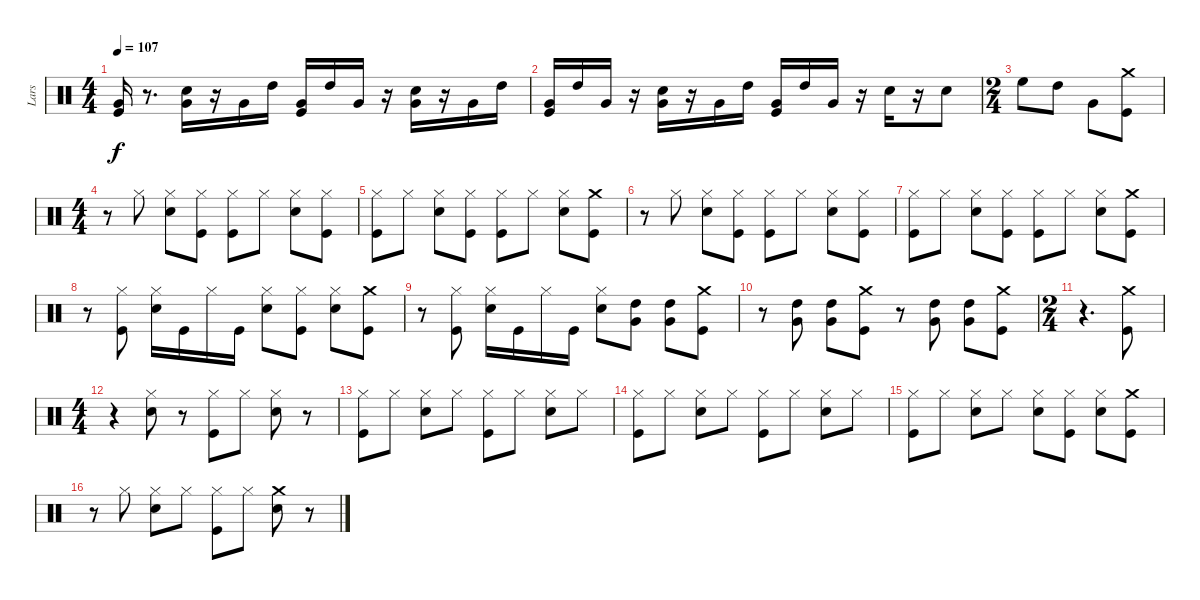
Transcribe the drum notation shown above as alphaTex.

\track ("Lars" "Lars") {instrument percussion}
\staff {score}
\articulation defaults
\ts (4 4)
\tempo 107
\clef neutral
\ks c
("Very Low Tom (hit)" "Kick (hit)").16{dy f} r.8{d} ("Very Low Tom (hit)" "Snare (hit) 2").16 r.16 "Very Low Tom (hit)".16 "High Tom (hit)".16 ("Very Low Tom (hit)" "Kick (hit)").16 "High Tom (hit)".16 "Very Low Tom (hit)".16 r.16 ("Very Low Tom (hit)" "Snare (hit) 2").16 r.16 "Very Low Tom (hit)".16 "High Tom (hit)".16 |
("Very Low Tom (hit)" "Kick (hit)").16 "High Tom (hit)".16 "Very Low Tom (hit)".16 r.16 ("Very Low Tom (hit)" "Snare (hit) 2").16 r.16 "Very Low Tom (hit)".16 "High Tom (hit)".16 ("Very Low Tom (hit)" "Kick (hit)").16 "High Tom (hit)".16 "Very Low Tom (hit)".16 r.16 "Snare (hit) 2".16 r.16 "Snare (hit) 2".8 |
\ts (2 4)
"High Floor Tom (hit)".8 "High Tom (hit)".8 "Very Low Tom (hit)".8 ("Crash medium (hit)" "Kick (hit)").8 |
\ts (4 4)
r.8 "Hi-Hat (closed)".8 ("Snare (hit) 2" "Hi-Hat (closed)").8 ("Hi-Hat (closed)" "Kick (hit)").8 ("Kick (hit)" "Hi-Hat (closed)").8 "Hi-Hat (closed)".8 ("Snare (hit) 2" "Hi-Hat (closed)").8 ("Kick (hit)" "Hi-Hat (closed)").8 |
("Hi-Hat (closed)" "Kick (hit)").8 "Hi-Hat (closed)".8 ("Snare (hit) 2" "Hi-Hat (closed)").8 ("Kick (hit)" "Hi-Hat (closed)").8 ("Hi-Hat (closed)" "Kick (hit)").8 "Hi-Hat (closed)".8 ("Snare (hit) 2" "Hi-Hat (closed)").8 ("Crash medium (hit)" "Kick (hit)").8 |
r.8 "Hi-Hat (closed)".8 ("Snare (hit) 2" "Hi-Hat (closed)").8 ("Hi-Hat (closed)" "Kick (hit)").8 ("Hi-Hat (closed)" "Kick (hit)").8 "Hi-Hat (closed)".8 ("Snare (hit) 2" "Hi-Hat (closed)").8 ("Kick (hit)" "Hi-Hat (closed)").8 |
("Hi-Hat (closed)" "Kick (hit)").8 "Hi-Hat (closed)".8 ("Snare (hit) 2" "Hi-Hat (closed)").8 ("Kick (hit)" "Hi-Hat (closed)").8 ("Hi-Hat (closed)" "Kick (hit)").8 "Hi-Hat (closed)".8 ("Snare (hit) 2" "Hi-Hat (closed)").8 ("Crash medium (hit)" "Kick (hit)").8 |
r.8 ("Kick (hit)" "Hi-Hat (closed)").8 ("Snare (hit) 2" "Hi-Hat (closed)").16 "Kick (hit)".16 "Hi-Hat (closed)".16 "Kick (hit)".16 ("Snare (hit) 2" "Hi-Hat (closed)").8 ("Kick (hit)" "Hi-Hat (closed)").8 ("Hi-Hat (closed)" "Snare (hit) 2").8 ("Crash medium (hit)" "Kick (hit)").8 |
r.8 ("Kick (hit)" "Hi-Hat (closed)").8 ("Snare (hit) 2" "Hi-Hat (closed)").16 "Kick (hit)".16 "Hi-Hat (closed)".16 "Kick (hit)".16 ("Snare (hit) 2" "Hi-Hat (closed)").8 ("High Tom (hit)" "Very Low Tom (hit)").8 ("High Tom (hit)" "Very Low Tom (hit)").8 ("Crash medium (hit)" "Kick (hit)").8 |
r.8 ("High Tom (hit)" "Very Low Tom (hit)").8 ("High Tom (hit)" "Very Low Tom (hit)").8 ("Crash medium (hit)" "Kick (hit)").8 r.8 ("High Tom (hit)" "Very Low Tom (hit)").8 ("High Tom (hit)" "Very Low Tom (hit)").8 ("Crash medium (hit)" "Kick (hit)").8 |
\ts (2 4)
r.4{d} ("Crash medium (hit)" "Kick (hit)").8 |
\ts (4 4)
r.4 ("Snare (hit) 2" "Hi-Hat (closed)").8 r.8 ("Kick (hit)" "Hi-Hat (closed)").8 "Hi-Hat (closed)".8 ("Snare (hit) 2" "Hi-Hat (closed)").8 r.8 |
("Kick (hit)" "Hi-Hat (closed)").8 "Hi-Hat (closed)".8 ("Snare (hit) 2" "Hi-Hat (closed)").8 "Hi-Hat (closed)".8 ("Kick (hit)" "Hi-Hat (closed)").8 "Hi-Hat (closed)".8 ("Snare (hit) 2" "Hi-Hat (closed)").8 "Hi-Hat (closed)".8 |
("Kick (hit)" "Hi-Hat (closed)").8 "Hi-Hat (closed)".8 ("Snare (hit) 2" "Hi-Hat (closed)").8 "Hi-Hat (closed)".8 ("Kick (hit)" "Hi-Hat (closed)").8 "Hi-Hat (closed)".8 ("Snare (hit) 2" "Hi-Hat (closed)").8 "Hi-Hat (closed)".8 |
("Hi-Hat (closed)" "Kick (hit)").8 "Hi-Hat (closed)".8 ("Snare (hit) 2" "Hi-Hat (closed)").8 "Hi-Hat (closed)".8 ("Hi-Hat (closed)" "Snare (hit) 2").8 ("Hi-Hat (closed)" "Kick (hit)").8 ("Hi-Hat (closed)" "Snare (hit) 2").8 ("Crash medium (hit)" "Kick (hit)").8 |
r.8 "Hi-Hat (closed)".8 ("Snare (hit) 2" "Hi-Hat (closed)").8 "Hi-Hat (closed)".8 ("Hi-Hat (closed)" "Kick (hit)").8 "Hi-Hat (closed)".8 ("Crash medium (hit)" "Snare (hit) 2").8 r.8
